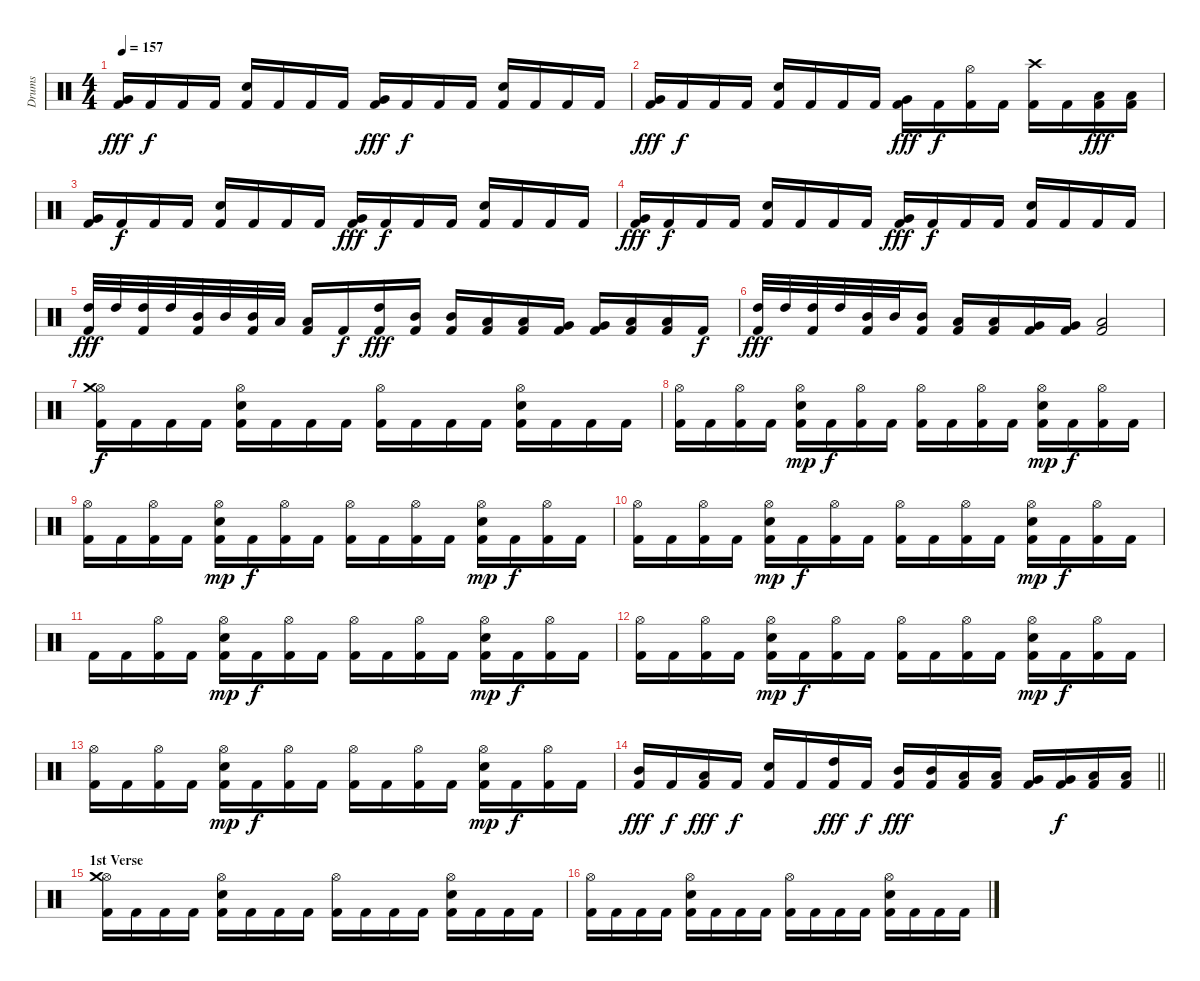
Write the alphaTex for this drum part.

\track ("Drums" "Drums") {instrument percussion}
\staff {score}
\articulation defaults
\ts (4 4)
\tempo 157
\clef neutral
\ks c
("Kick (hit) 2" "Very Low Tom (hit)").16{dy fff} "Kick (hit) 2".16{dy f} "Kick (hit) 2".16 "Kick (hit) 2".16 ("Kick (hit) 2" "Electric Snare (hit)").16 "Kick (hit) 2".16 "Kick (hit) 2".16 "Kick (hit) 2".16 ("Kick (hit) 2" "Very Low Tom (hit)").16{dy fff} "Kick (hit) 2".16{dy f} "Kick (hit) 2".16 "Kick (hit) 2".16 ("Kick (hit) 2" "Electric Snare (hit)").16 "Kick (hit) 2".16 "Kick (hit) 2".16 "Kick (hit) 2".16 |
("Kick (hit) 2" "Very Low Tom (hit)").16{dy fff} "Kick (hit) 2".16{dy f} "Kick (hit) 2".16 "Kick (hit) 2".16 ("Kick (hit) 2" "Electric Snare (hit)").16 "Kick (hit) 2".16 "Kick (hit) 2".16 "Kick (hit) 2".16 ("Kick (hit) 2" "Very Low Tom (hit)").16{dy fff} "Kick (hit) 2".16{dy f} ("Kick (hit) 2" "Hi-Hat (open)").16 "Kick (hit) 2".16 ("Kick (hit) 2" "Crash high (hit)").16 "Kick (hit) 2".16 ("Kick (hit) 2" "Low Tom (hit)").16{dy fff} ("Kick (hit) 2" "Low Tom (hit)").16 |
("Kick (hit) 2" "Very Low Tom (hit)").16 "Kick (hit) 2".16{dy f} "Kick (hit) 2".16 "Kick (hit) 2".16 ("Kick (hit) 2" "Electric Snare (hit)").16 "Kick (hit) 2".16 "Kick (hit) 2".16 "Kick (hit) 2".16 ("Kick (hit) 2" "Very Low Tom (hit)").16{dy fff} "Kick (hit) 2".16{dy f} "Kick (hit) 2".16 "Kick (hit) 2".16 ("Kick (hit) 2" "Electric Snare (hit)").16 "Kick (hit) 2".16 "Kick (hit) 2".16 "Kick (hit) 2".16 |
("Kick (hit) 2" "Very Low Tom (hit)").16{dy fff} "Kick (hit) 2".16{dy f} "Kick (hit) 2".16 "Kick (hit) 2".16 ("Kick (hit) 2" "Electric Snare (hit)").16 "Kick (hit) 2".16 "Kick (hit) 2".16 "Kick (hit) 2".16 ("Kick (hit) 2" "Very Low Tom (hit)").16{dy fff} "Kick (hit) 2".16{dy f} "Kick (hit) 2".16 "Kick (hit) 2".16 ("Kick (hit) 2" "Electric Snare (hit)").16 "Kick (hit) 2".16 "Kick (hit) 2".16 "Kick (hit) 2".16 |
("Kick (hit) 2" "High Tom (hit)").32{dy fff} "High Tom (hit)".32 ("Kick (hit) 2" "High Tom (hit)").32 "High Tom (hit)".32 ("Kick (hit) 2" "Mid Tom (hit)").32 "Mid Tom (hit)".32 ("Kick (hit) 2" "Mid Tom (hit)").32 "Low Tom (hit)".32 ("Kick (hit) 2" "Low Tom (hit)").16 "Kick (hit) 2".16{dy f} ("Kick (hit) 2" "High Tom (hit)").16{dy fff} ("Kick (hit) 2" "Mid Tom (hit)").16 ("Kick (hit) 2" "Mid Tom (hit)").16 ("Kick (hit) 2" "Low Tom (hit)").16 ("Kick (hit) 2" "Low Tom (hit)").16 ("Kick (hit) 2" "Very Low Tom (hit)").16 ("Kick (hit) 2" "Very Low Tom (hit)").16 ("Kick (hit) 2" "Low Floor Tom (hit)").16 ("Kick (hit) 2" "Low Floor Tom (hit)").16 "Kick (hit) 2".16{dy f} |
("Kick (hit) 2" "High Tom (hit)").32{dy fff} "High Tom (hit)".32 ("Kick (hit) 2" "High Tom (hit)").32 "High Tom (hit)".32 ("Kick (hit) 2" "Mid Tom (hit)").32 "Mid Tom (hit)".32 ("Kick (hit) 2" "Mid Tom (hit)").16 ("Kick (hit) 2" "Low Tom (hit)").16 ("Kick (hit) 2" "Low Tom (hit)").16 ("Kick (hit) 2" "Very Low Tom (hit)").16 ("Kick (hit) 2" "Very Low Tom (hit)").16 ("Kick (hit) 2" "Low Floor Tom (hit)").2 |
("Kick (hit) 2" "Hi-Hat (open)" "Crash medium (hit)").16{dy f} "Kick (hit) 2".16 "Kick (hit) 2".16 "Kick (hit) 2".16 ("Kick (hit) 2" "Electric Snare (hit)" "Hi-Hat (open)").16 "Kick (hit) 2".16 "Kick (hit) 2".16 "Kick (hit) 2".16 ("Kick (hit) 2" "Hi-Hat (open)").16 "Kick (hit) 2".16 "Kick (hit) 2".16 "Kick (hit) 2".16 ("Kick (hit) 2" "Electric Snare (hit)" "Hi-Hat (open)").16 "Kick (hit) 2".16 "Kick (hit) 2".16 "Kick (hit) 2".16 |
("Kick (hit) 2" "Hi-Hat (open)").16 "Kick (hit) 2".16 ("Kick (hit) 2" "Hi-Hat (open)").16 "Kick (hit) 2".16 ("Kick (hit) 2" "Electric Snare (hit)" "Hi-Hat (open)").16{dy mp} "Kick (hit) 2".16{dy f} ("Kick (hit) 2" "Hi-Hat (open)").16 "Kick (hit) 2".16 ("Kick (hit) 2" "Hi-Hat (open)").16 "Kick (hit) 2".16 ("Kick (hit) 2" "Hi-Hat (open)").16 "Kick (hit) 2".16 ("Kick (hit) 2" "Electric Snare (hit)" "Hi-Hat (open)").16{dy mp} "Kick (hit) 2".16{dy f} ("Kick (hit) 2" "Hi-Hat (open)").16 "Kick (hit) 2".16 |
("Kick (hit) 2" "Hi-Hat (open)").16 "Kick (hit) 2".16 ("Kick (hit) 2" "Hi-Hat (open)").16 "Kick (hit) 2".16 ("Kick (hit) 2" "Electric Snare (hit)" "Hi-Hat (open)").16{dy mp} "Kick (hit) 2".16{dy f} ("Kick (hit) 2" "Hi-Hat (open)").16 "Kick (hit) 2".16 ("Kick (hit) 2" "Hi-Hat (open)").16 "Kick (hit) 2".16 ("Kick (hit) 2" "Hi-Hat (open)").16 "Kick (hit) 2".16 ("Kick (hit) 2" "Electric Snare (hit)" "Hi-Hat (open)").16{dy mp} "Kick (hit) 2".16{dy f} ("Kick (hit) 2" "Hi-Hat (open)").16 "Kick (hit) 2".16 |
("Kick (hit) 2" "Hi-Hat (open)").16 "Kick (hit) 2".16 ("Kick (hit) 2" "Hi-Hat (open)").16 "Kick (hit) 2".16 ("Kick (hit) 2" "Electric Snare (hit)" "Hi-Hat (open)").16{dy mp} "Kick (hit) 2".16{dy f} ("Kick (hit) 2" "Hi-Hat (open)").16 "Kick (hit) 2".16 ("Kick (hit) 2" "Hi-Hat (open)").16 "Kick (hit) 2".16 ("Kick (hit) 2" "Hi-Hat (open)").16 "Kick (hit) 2".16 ("Kick (hit) 2" "Electric Snare (hit)" "Hi-Hat (open)").16{dy mp} "Kick (hit) 2".16{dy f} ("Kick (hit) 2" "Hi-Hat (open)").16 "Kick (hit) 2".16 |
"Kick (hit) 2".16 "Kick (hit) 2".16 ("Kick (hit) 2" "Hi-Hat (open)").16 "Kick (hit) 2".16 ("Kick (hit) 2" "Electric Snare (hit)" "Hi-Hat (open)").16{dy mp} "Kick (hit) 2".16{dy f} ("Kick (hit) 2" "Hi-Hat (open)").16 "Kick (hit) 2".16 ("Kick (hit) 2" "Hi-Hat (open)").16 "Kick (hit) 2".16 ("Kick (hit) 2" "Hi-Hat (open)").16 "Kick (hit) 2".16 ("Kick (hit) 2" "Electric Snare (hit)" "Hi-Hat (open)").16{dy mp} "Kick (hit) 2".16{dy f} ("Kick (hit) 2" "Hi-Hat (open)").16 "Kick (hit) 2".16 |
("Kick (hit) 2" "Hi-Hat (open)").16 "Kick (hit) 2".16 ("Kick (hit) 2" "Hi-Hat (open)").16 "Kick (hit) 2".16 ("Kick (hit) 2" "Electric Snare (hit)" "Hi-Hat (open)").16{dy mp} "Kick (hit) 2".16{dy f} ("Kick (hit) 2" "Hi-Hat (open)").16 "Kick (hit) 2".16 ("Kick (hit) 2" "Hi-Hat (open)").16 "Kick (hit) 2".16 ("Kick (hit) 2" "Hi-Hat (open)").16 "Kick (hit) 2".16 ("Kick (hit) 2" "Electric Snare (hit)" "Hi-Hat (open)").16{dy mp} "Kick (hit) 2".16{dy f} ("Kick (hit) 2" "Hi-Hat (open)").16 "Kick (hit) 2".16 |
("Kick (hit) 2" "Hi-Hat (open)").16 "Kick (hit) 2".16 ("Kick (hit) 2" "Hi-Hat (open)").16 "Kick (hit) 2".16 ("Kick (hit) 2" "Electric Snare (hit)" "Hi-Hat (open)").16{dy mp} "Kick (hit) 2".16{dy f} ("Kick (hit) 2" "Hi-Hat (open)").16 "Kick (hit) 2".16 ("Kick (hit) 2" "Hi-Hat (open)").16 "Kick (hit) 2".16 ("Kick (hit) 2" "Hi-Hat (open)").16 "Kick (hit) 2".16 ("Kick (hit) 2" "Electric Snare (hit)" "Hi-Hat (open)").16{dy mp} "Kick (hit) 2".16{dy f} ("Kick (hit) 2" "Hi-Hat (open)").16 "Kick (hit) 2".16 |
\barLineRight lightlight
("Kick (hit) 2" "Mid Tom (hit)").16{dy fff} "Kick (hit) 2".16{dy f} ("Kick (hit) 2" "Low Tom (hit)").16{dy fff} "Kick (hit) 2".16{dy f} ("Kick (hit) 2" "Electric Snare (hit)").16 "Kick (hit) 2".16 ("Kick (hit) 2" "High Tom (hit)").16{dy fff} "Kick (hit) 2".16{dy f} ("Kick (hit) 2" "Mid Tom (hit)").16{dy fff} ("Kick (hit) 2" "Mid Tom (hit)").16 ("Kick (hit) 2" "Low Tom (hit)").16 ("Kick (hit) 2" "Low Tom (hit)").16 ("Kick (hit) 2" "Very Low Tom (hit)").16 ("Kick (hit) 2" "Very Low Tom (hit)").16{dy f} ("Kick (hit) 2" "Low Floor Tom (hit)").16 ("Kick (hit) 2" "Low Floor Tom (hit)").16 |
\section ("" "1st Verse")
("Kick (hit) 2" "Hi-Hat (open)" "Crash medium (hit)").16 "Kick (hit) 2".16 "Kick (hit) 2".16 "Kick (hit) 2".16 ("Kick (hit) 2" "Electric Snare (hit)" "Hi-Hat (open)").16 "Kick (hit) 2".16 "Kick (hit) 2".16 "Kick (hit) 2".16 ("Kick (hit) 2" "Hi-Hat (open)").16 "Kick (hit) 2".16 "Kick (hit) 2".16 "Kick (hit) 2".16 ("Kick (hit) 2" "Electric Snare (hit)" "Hi-Hat (open)").16 "Kick (hit) 2".16 "Kick (hit) 2".16 "Kick (hit) 2".16 |
("Kick (hit) 2" "Hi-Hat (open)").16 "Kick (hit) 2".16 "Kick (hit) 2".16 "Kick (hit) 2".16 ("Kick (hit) 2" "Electric Snare (hit)" "Hi-Hat (open)").16 "Kick (hit) 2".16 "Kick (hit) 2".16 "Kick (hit) 2".16 ("Kick (hit) 2" "Hi-Hat (open)").16 "Kick (hit) 2".16 "Kick (hit) 2".16 "Kick (hit) 2".16 ("Kick (hit) 2" "Electric Snare (hit)" "Hi-Hat (open)").16 "Kick (hit) 2".16 "Kick (hit) 2".16 "Kick (hit) 2".16
